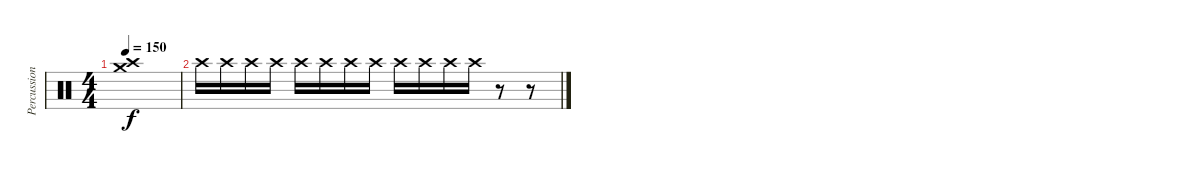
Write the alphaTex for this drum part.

\track ("Percussioni" "Percussion") {instrument percussion}
\staff {score}
\articulation defaults
\ts (4 4)
\tempo 150
\clef neutral
\ks c
("Crash medium (hit)" "Crash high (hit)").1{dy f} |
"Crash high (hit)".16 "Crash high (hit)".16 "Crash high (hit)".16 "Crash high (hit)".16 "Crash high (hit)".16 "Crash high (hit)".16 "Crash high (hit)".16 "Crash high (hit)".16 "Crash high (hit)".16 "Crash high (hit)".16 "Crash high (hit)".16 "Crash high (hit)".16 r.8 r.8
